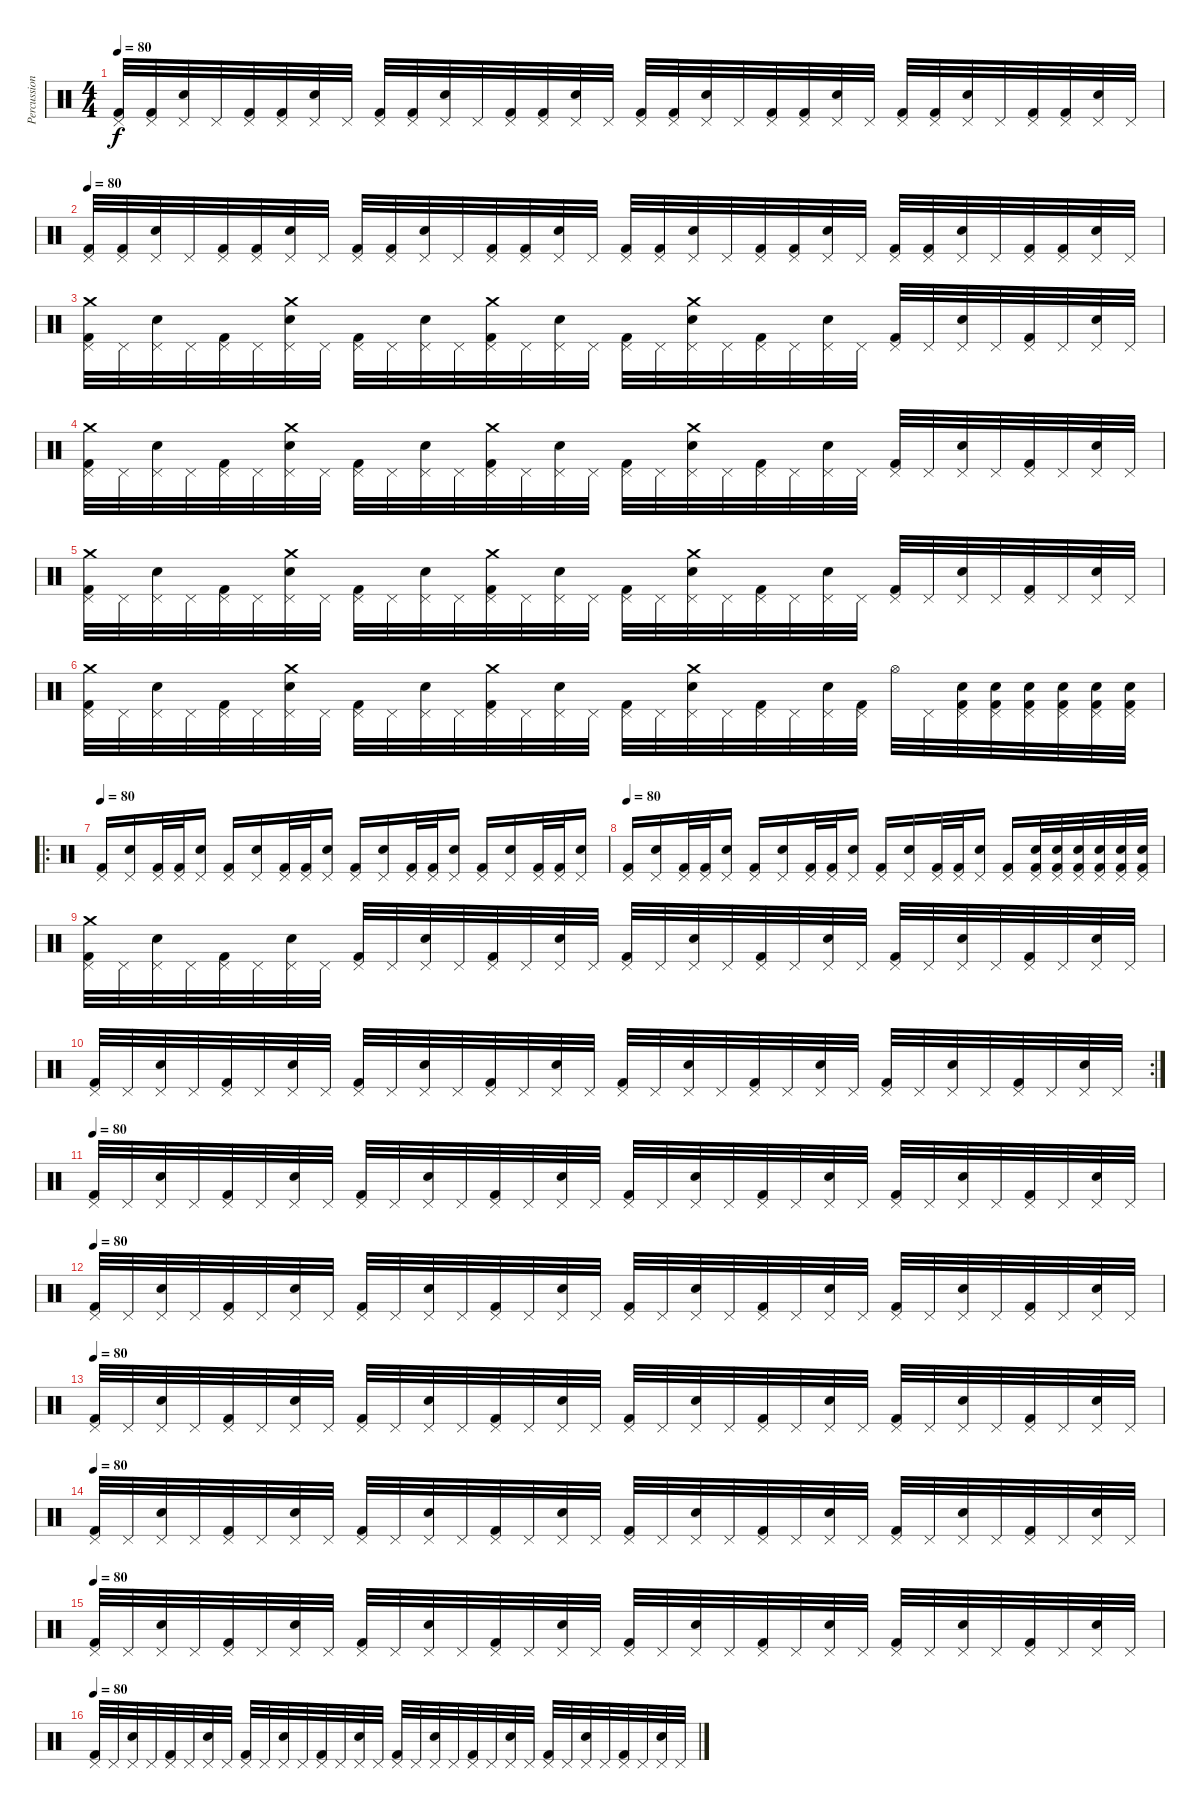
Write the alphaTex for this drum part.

\track ("Percussion" "Percussion") {instrument percussion}
\staff {score}
\articulation defaults
\ts (4 4)
\tempo 80
\clef neutral
\ks c
("Kick (hit) 2" "Pedal Hi-Hat (hit)").32{dy f} ("Kick (hit) 2" "Pedal Hi-Hat (hit)").32 ("Pedal Hi-Hat (hit)" "Electric Snare (hit)").32 "Pedal Hi-Hat (hit)".32 ("Kick (hit) 2" "Pedal Hi-Hat (hit)").32 ("Kick (hit) 2" "Pedal Hi-Hat (hit)").32 ("Pedal Hi-Hat (hit)" "Electric Snare (hit)").32 "Pedal Hi-Hat (hit)".32 ("Kick (hit) 2" "Pedal Hi-Hat (hit)").32 ("Kick (hit) 2" "Pedal Hi-Hat (hit)").32 ("Pedal Hi-Hat (hit)" "Electric Snare (hit)").32 "Pedal Hi-Hat (hit)".32 ("Kick (hit) 2" "Pedal Hi-Hat (hit)").32 ("Kick (hit) 2" "Pedal Hi-Hat (hit)").32 ("Pedal Hi-Hat (hit)" "Electric Snare (hit)").32 "Pedal Hi-Hat (hit)".32 ("Kick (hit) 2" "Pedal Hi-Hat (hit)").32 ("Kick (hit) 2" "Pedal Hi-Hat (hit)").32 ("Pedal Hi-Hat (hit)" "Electric Snare (hit)").32 "Pedal Hi-Hat (hit)".32 ("Kick (hit) 2" "Pedal Hi-Hat (hit)").32 ("Kick (hit) 2" "Pedal Hi-Hat (hit)").32 ("Pedal Hi-Hat (hit)" "Electric Snare (hit)").32 "Pedal Hi-Hat (hit)".32 ("Kick (hit) 2" "Pedal Hi-Hat (hit)").32 ("Kick (hit) 2" "Pedal Hi-Hat (hit)").32 ("Pedal Hi-Hat (hit)" "Electric Snare (hit)").32 "Pedal Hi-Hat (hit)".32 ("Kick (hit) 2" "Pedal Hi-Hat (hit)").32 ("Kick (hit) 2" "Pedal Hi-Hat (hit)").32 ("Pedal Hi-Hat (hit)" "Electric Snare (hit)").32 "Pedal Hi-Hat (hit)".32 |
\tempo 80
("Kick (hit) 2" "Pedal Hi-Hat (hit)").32 ("Kick (hit) 2" "Pedal Hi-Hat (hit)").32 ("Pedal Hi-Hat (hit)" "Electric Snare (hit)").32 "Pedal Hi-Hat (hit)".32 ("Kick (hit) 2" "Pedal Hi-Hat (hit)").32 ("Kick (hit) 2" "Pedal Hi-Hat (hit)").32 ("Pedal Hi-Hat (hit)" "Electric Snare (hit)").32 "Pedal Hi-Hat (hit)".32 ("Kick (hit) 2" "Pedal Hi-Hat (hit)").32 ("Kick (hit) 2" "Pedal Hi-Hat (hit)").32 ("Pedal Hi-Hat (hit)" "Electric Snare (hit)").32 "Pedal Hi-Hat (hit)".32 ("Kick (hit) 2" "Pedal Hi-Hat (hit)").32 ("Kick (hit) 2" "Pedal Hi-Hat (hit)").32 ("Pedal Hi-Hat (hit)" "Electric Snare (hit)").32 "Pedal Hi-Hat (hit)".32 ("Kick (hit) 2" "Pedal Hi-Hat (hit)").32 ("Kick (hit) 2" "Pedal Hi-Hat (hit)").32 ("Pedal Hi-Hat (hit)" "Electric Snare (hit)").32 "Pedal Hi-Hat (hit)".32 ("Kick (hit) 2" "Pedal Hi-Hat (hit)").32 ("Kick (hit) 2" "Pedal Hi-Hat (hit)").32 ("Pedal Hi-Hat (hit)" "Electric Snare (hit)").32 "Pedal Hi-Hat (hit)".32 ("Kick (hit) 2" "Pedal Hi-Hat (hit)").32 ("Kick (hit) 2" "Pedal Hi-Hat (hit)").32 ("Pedal Hi-Hat (hit)" "Electric Snare (hit)").32 "Pedal Hi-Hat (hit)".32 ("Kick (hit) 2" "Pedal Hi-Hat (hit)").32 ("Kick (hit) 2" "Pedal Hi-Hat (hit)").32 ("Pedal Hi-Hat (hit)" "Electric Snare (hit)").32 "Pedal Hi-Hat (hit)".32 |
("Kick (hit) 2" "Pedal Hi-Hat (hit)" "Crash medium (hit)").32 "Pedal Hi-Hat (hit)".32 ("Pedal Hi-Hat (hit)" "Electric Snare (hit)").32 "Pedal Hi-Hat (hit)".32 ("Kick (hit) 2" "Pedal Hi-Hat (hit)").32 "Pedal Hi-Hat (hit)".32 ("Pedal Hi-Hat (hit)" "Electric Snare (hit)" "Crash medium (hit)").32 "Pedal Hi-Hat (hit)".32 ("Kick (hit) 2" "Pedal Hi-Hat (hit)").32 "Pedal Hi-Hat (hit)".32 ("Pedal Hi-Hat (hit)" "Electric Snare (hit)").32 "Pedal Hi-Hat (hit)".32 ("Kick (hit) 2" "Pedal Hi-Hat (hit)" "Crash medium (hit)").32 "Pedal Hi-Hat (hit)".32 ("Pedal Hi-Hat (hit)" "Electric Snare (hit)").32 "Pedal Hi-Hat (hit)".32 ("Kick (hit) 2" "Pedal Hi-Hat (hit)").32 "Pedal Hi-Hat (hit)".32 ("Pedal Hi-Hat (hit)" "Electric Snare (hit)" "Crash medium (hit)").32 "Pedal Hi-Hat (hit)".32 ("Kick (hit) 2" "Pedal Hi-Hat (hit)").32 "Pedal Hi-Hat (hit)".32 ("Pedal Hi-Hat (hit)" "Electric Snare (hit)").32 "Pedal Hi-Hat (hit)".32 ("Kick (hit) 2" "Pedal Hi-Hat (hit)").32 "Pedal Hi-Hat (hit)".32 ("Pedal Hi-Hat (hit)" "Electric Snare (hit)").32 "Pedal Hi-Hat (hit)".32 ("Kick (hit) 2" "Pedal Hi-Hat (hit)").32 "Pedal Hi-Hat (hit)".32 ("Pedal Hi-Hat (hit)" "Electric Snare (hit)").32 "Pedal Hi-Hat (hit)".32 |
("Kick (hit) 2" "Pedal Hi-Hat (hit)" "Crash medium (hit)").32 "Pedal Hi-Hat (hit)".32 ("Pedal Hi-Hat (hit)" "Electric Snare (hit)").32 "Pedal Hi-Hat (hit)".32 ("Kick (hit) 2" "Pedal Hi-Hat (hit)").32 "Pedal Hi-Hat (hit)".32 ("Pedal Hi-Hat (hit)" "Electric Snare (hit)" "Crash medium (hit)").32 "Pedal Hi-Hat (hit)".32 ("Kick (hit) 2" "Pedal Hi-Hat (hit)").32 "Pedal Hi-Hat (hit)".32 ("Pedal Hi-Hat (hit)" "Electric Snare (hit)").32 "Pedal Hi-Hat (hit)".32 ("Kick (hit) 2" "Pedal Hi-Hat (hit)" "Crash medium (hit)").32 "Pedal Hi-Hat (hit)".32 ("Pedal Hi-Hat (hit)" "Electric Snare (hit)").32 "Pedal Hi-Hat (hit)".32 ("Kick (hit) 2" "Pedal Hi-Hat (hit)").32 "Pedal Hi-Hat (hit)".32 ("Pedal Hi-Hat (hit)" "Electric Snare (hit)" "Crash medium (hit)").32 "Pedal Hi-Hat (hit)".32 ("Kick (hit) 2" "Pedal Hi-Hat (hit)").32 "Pedal Hi-Hat (hit)".32 ("Pedal Hi-Hat (hit)" "Electric Snare (hit)").32 "Pedal Hi-Hat (hit)".32 ("Kick (hit) 2" "Pedal Hi-Hat (hit)").32 "Pedal Hi-Hat (hit)".32 ("Pedal Hi-Hat (hit)" "Electric Snare (hit)").32 "Pedal Hi-Hat (hit)".32 ("Kick (hit) 2" "Pedal Hi-Hat (hit)").32 "Pedal Hi-Hat (hit)".32 ("Pedal Hi-Hat (hit)" "Electric Snare (hit)").32 "Pedal Hi-Hat (hit)".32 |
("Kick (hit) 2" "Pedal Hi-Hat (hit)" "Crash medium (hit)").32 "Pedal Hi-Hat (hit)".32 ("Pedal Hi-Hat (hit)" "Electric Snare (hit)").32 "Pedal Hi-Hat (hit)".32 ("Kick (hit) 2" "Pedal Hi-Hat (hit)").32 "Pedal Hi-Hat (hit)".32 ("Pedal Hi-Hat (hit)" "Electric Snare (hit)" "Crash medium (hit)").32 "Pedal Hi-Hat (hit)".32 ("Kick (hit) 2" "Pedal Hi-Hat (hit)").32 "Pedal Hi-Hat (hit)".32 ("Pedal Hi-Hat (hit)" "Electric Snare (hit)").32 "Pedal Hi-Hat (hit)".32 ("Kick (hit) 2" "Pedal Hi-Hat (hit)" "Crash medium (hit)").32 "Pedal Hi-Hat (hit)".32 ("Pedal Hi-Hat (hit)" "Electric Snare (hit)").32 "Pedal Hi-Hat (hit)".32 ("Kick (hit) 2" "Pedal Hi-Hat (hit)").32 "Pedal Hi-Hat (hit)".32 ("Pedal Hi-Hat (hit)" "Electric Snare (hit)" "Crash medium (hit)").32 "Pedal Hi-Hat (hit)".32 ("Kick (hit) 2" "Pedal Hi-Hat (hit)").32 "Pedal Hi-Hat (hit)".32 ("Pedal Hi-Hat (hit)" "Electric Snare (hit)").32 "Pedal Hi-Hat (hit)".32 ("Kick (hit) 2" "Pedal Hi-Hat (hit)").32 "Pedal Hi-Hat (hit)".32 ("Pedal Hi-Hat (hit)" "Electric Snare (hit)").32 "Pedal Hi-Hat (hit)".32 ("Kick (hit) 2" "Pedal Hi-Hat (hit)").32 "Pedal Hi-Hat (hit)".32 ("Pedal Hi-Hat (hit)" "Electric Snare (hit)").32 "Pedal Hi-Hat (hit)".32 |
("Kick (hit) 2" "Pedal Hi-Hat (hit)" "Crash medium (hit)").32 "Pedal Hi-Hat (hit)".32 ("Pedal Hi-Hat (hit)" "Electric Snare (hit)").32 "Pedal Hi-Hat (hit)".32 ("Kick (hit) 2" "Pedal Hi-Hat (hit)").32 "Pedal Hi-Hat (hit)".32 ("Pedal Hi-Hat (hit)" "Electric Snare (hit)" "Crash medium (hit)").32 "Pedal Hi-Hat (hit)".32 ("Kick (hit) 2" "Pedal Hi-Hat (hit)").32 "Pedal Hi-Hat (hit)".32 ("Pedal Hi-Hat (hit)" "Electric Snare (hit)").32 "Pedal Hi-Hat (hit)".32 ("Kick (hit) 2" "Pedal Hi-Hat (hit)" "Crash medium (hit)").32 "Pedal Hi-Hat (hit)".32 ("Pedal Hi-Hat (hit)" "Electric Snare (hit)").32 "Pedal Hi-Hat (hit)".32 ("Kick (hit) 2" "Pedal Hi-Hat (hit)").32 "Pedal Hi-Hat (hit)".32 ("Pedal Hi-Hat (hit)" "Electric Snare (hit)" "Crash medium (hit)").32 "Pedal Hi-Hat (hit)".32 ("Kick (hit) 2" "Pedal Hi-Hat (hit)").32 "Pedal Hi-Hat (hit)".32 ("Pedal Hi-Hat (hit)" "Electric Snare (hit)").32 ("Kick (hit) 2" "Pedal Hi-Hat (hit)").32 "Hi-Hat (open)".32 "Pedal Hi-Hat (hit)".32 ("Kick (hit) 2" "Pedal Hi-Hat (hit)" "Electric Snare (hit)").32 ("Kick (hit) 2" "Pedal Hi-Hat (hit)" "Electric Snare (hit)").32 ("Kick (hit) 2" "Pedal Hi-Hat (hit)" "Electric Snare (hit)").32 ("Kick (hit) 2" "Pedal Hi-Hat (hit)" "Electric Snare (hit)").32 ("Kick (hit) 2" "Pedal Hi-Hat (hit)" "Electric Snare (hit)").32 ("Kick (hit) 2" "Pedal Hi-Hat (hit)" "Electric Snare (hit)").32 |
\ro
\tempo 80
("Kick (hit) 2" "Pedal Hi-Hat (hit)").16 ("Pedal Hi-Hat (hit)" "Electric Snare (hit)").16 ("Kick (hit) 2" "Pedal Hi-Hat (hit)").32 ("Kick (hit) 2" "Pedal Hi-Hat (hit)").32 ("Pedal Hi-Hat (hit)" "Electric Snare (hit)").16 ("Kick (hit) 2" "Pedal Hi-Hat (hit)").16 ("Pedal Hi-Hat (hit)" "Electric Snare (hit)").16 ("Kick (hit) 2" "Pedal Hi-Hat (hit)").32 ("Kick (hit) 2" "Pedal Hi-Hat (hit)").32 ("Pedal Hi-Hat (hit)" "Electric Snare (hit)").16 ("Kick (hit) 2" "Pedal Hi-Hat (hit)").16 ("Pedal Hi-Hat (hit)" "Electric Snare (hit)").16 ("Kick (hit) 2" "Pedal Hi-Hat (hit)").32 ("Kick (hit) 2" "Pedal Hi-Hat (hit)").32 ("Pedal Hi-Hat (hit)" "Electric Snare (hit)").16 ("Kick (hit) 2" "Pedal Hi-Hat (hit)").16 ("Pedal Hi-Hat (hit)" "Electric Snare (hit)").16 ("Kick (hit) 2" "Pedal Hi-Hat (hit)").32 ("Kick (hit) 2" "Pedal Hi-Hat (hit)").32 ("Pedal Hi-Hat (hit)" "Electric Snare (hit)").16 |
\tempo 80
("Kick (hit) 2" "Pedal Hi-Hat (hit)").16 ("Pedal Hi-Hat (hit)" "Electric Snare (hit)").16 ("Kick (hit) 2" "Pedal Hi-Hat (hit)").32 ("Kick (hit) 2" "Pedal Hi-Hat (hit)").32 ("Pedal Hi-Hat (hit)" "Electric Snare (hit)").16 ("Kick (hit) 2" "Pedal Hi-Hat (hit)").16 ("Pedal Hi-Hat (hit)" "Electric Snare (hit)").16 ("Kick (hit) 2" "Pedal Hi-Hat (hit)").32 ("Kick (hit) 2" "Pedal Hi-Hat (hit)").32 ("Pedal Hi-Hat (hit)" "Electric Snare (hit)").16 ("Kick (hit) 2" "Pedal Hi-Hat (hit)").16 ("Pedal Hi-Hat (hit)" "Electric Snare (hit)").16 ("Kick (hit) 2" "Pedal Hi-Hat (hit)").32 ("Kick (hit) 2" "Pedal Hi-Hat (hit)").32 ("Pedal Hi-Hat (hit)" "Electric Snare (hit)").16 ("Kick (hit) 2" "Pedal Hi-Hat (hit)").16 ("Kick (hit) 2" "Pedal Hi-Hat (hit)" "Electric Snare (hit)").32 ("Kick (hit) 2" "Pedal Hi-Hat (hit)" "Electric Snare (hit)").32 ("Kick (hit) 2" "Pedal Hi-Hat (hit)" "Electric Snare (hit)").32 ("Kick (hit) 2" "Pedal Hi-Hat (hit)" "Electric Snare (hit)").32 ("Kick (hit) 2" "Pedal Hi-Hat (hit)" "Electric Snare (hit)").32 ("Kick (hit) 2" "Pedal Hi-Hat (hit)" "Electric Snare (hit)").32 |
("Kick (hit) 2" "Pedal Hi-Hat (hit)" "Crash medium (hit)").32 "Pedal Hi-Hat (hit)".32 ("Pedal Hi-Hat (hit)" "Electric Snare (hit)").32 "Pedal Hi-Hat (hit)".32 ("Kick (hit) 2" "Pedal Hi-Hat (hit)").32 "Pedal Hi-Hat (hit)".32 ("Pedal Hi-Hat (hit)" "Electric Snare (hit)").32 "Pedal Hi-Hat (hit)".32 ("Kick (hit) 2" "Pedal Hi-Hat (hit)").32 "Pedal Hi-Hat (hit)".32 ("Pedal Hi-Hat (hit)" "Electric Snare (hit)").32 "Pedal Hi-Hat (hit)".32 ("Kick (hit) 2" "Pedal Hi-Hat (hit)").32 "Pedal Hi-Hat (hit)".32 ("Pedal Hi-Hat (hit)" "Electric Snare (hit)").32 "Pedal Hi-Hat (hit)".32 ("Kick (hit) 2" "Pedal Hi-Hat (hit)").32 "Pedal Hi-Hat (hit)".32 ("Pedal Hi-Hat (hit)" "Electric Snare (hit)").32 "Pedal Hi-Hat (hit)".32 ("Kick (hit) 2" "Pedal Hi-Hat (hit)").32 "Pedal Hi-Hat (hit)".32 ("Pedal Hi-Hat (hit)" "Electric Snare (hit)").32 "Pedal Hi-Hat (hit)".32 ("Kick (hit) 2" "Pedal Hi-Hat (hit)").32 "Pedal Hi-Hat (hit)".32 ("Pedal Hi-Hat (hit)" "Electric Snare (hit)").32 "Pedal Hi-Hat (hit)".32 ("Kick (hit) 2" "Pedal Hi-Hat (hit)").32 "Pedal Hi-Hat (hit)".32 ("Pedal Hi-Hat (hit)" "Electric Snare (hit)").32 "Pedal Hi-Hat (hit)".32 |
\rc 2
("Kick (hit) 2" "Pedal Hi-Hat (hit)").32 "Pedal Hi-Hat (hit)".32 ("Pedal Hi-Hat (hit)" "Electric Snare (hit)").32 "Pedal Hi-Hat (hit)".32 ("Kick (hit) 2" "Pedal Hi-Hat (hit)").32 "Pedal Hi-Hat (hit)".32 ("Pedal Hi-Hat (hit)" "Electric Snare (hit)").32 "Pedal Hi-Hat (hit)".32 ("Kick (hit) 2" "Pedal Hi-Hat (hit)").32 "Pedal Hi-Hat (hit)".32 ("Pedal Hi-Hat (hit)" "Electric Snare (hit)").32 "Pedal Hi-Hat (hit)".32 ("Kick (hit) 2" "Pedal Hi-Hat (hit)").32 "Pedal Hi-Hat (hit)".32 ("Pedal Hi-Hat (hit)" "Electric Snare (hit)").32 "Pedal Hi-Hat (hit)".32 ("Kick (hit) 2" "Pedal Hi-Hat (hit)").32 "Pedal Hi-Hat (hit)".32 ("Pedal Hi-Hat (hit)" "Electric Snare (hit)").32 "Pedal Hi-Hat (hit)".32 ("Kick (hit) 2" "Pedal Hi-Hat (hit)").32 "Pedal Hi-Hat (hit)".32 ("Pedal Hi-Hat (hit)" "Electric Snare (hit)").32 "Pedal Hi-Hat (hit)".32 ("Kick (hit) 2" "Pedal Hi-Hat (hit)").32 "Pedal Hi-Hat (hit)".32 ("Pedal Hi-Hat (hit)" "Electric Snare (hit)").32 "Pedal Hi-Hat (hit)".32 ("Kick (hit) 2" "Pedal Hi-Hat (hit)").32 "Pedal Hi-Hat (hit)".32 ("Pedal Hi-Hat (hit)" "Electric Snare (hit)").32 "Pedal Hi-Hat (hit)".32 |
\tempo 80
("Kick (hit) 2" "Pedal Hi-Hat (hit)").32 "Pedal Hi-Hat (hit)".32 ("Pedal Hi-Hat (hit)" "Electric Snare (hit)").32 "Pedal Hi-Hat (hit)".32 ("Kick (hit) 2" "Pedal Hi-Hat (hit)").32 "Pedal Hi-Hat (hit)".32 ("Pedal Hi-Hat (hit)" "Electric Snare (hit)").32 "Pedal Hi-Hat (hit)".32 ("Kick (hit) 2" "Pedal Hi-Hat (hit)").32 "Pedal Hi-Hat (hit)".32 ("Pedal Hi-Hat (hit)" "Electric Snare (hit)").32 "Pedal Hi-Hat (hit)".32 ("Kick (hit) 2" "Pedal Hi-Hat (hit)").32 "Pedal Hi-Hat (hit)".32 ("Pedal Hi-Hat (hit)" "Electric Snare (hit)").32 "Pedal Hi-Hat (hit)".32 ("Kick (hit) 2" "Pedal Hi-Hat (hit)").32 "Pedal Hi-Hat (hit)".32 ("Pedal Hi-Hat (hit)" "Electric Snare (hit)").32 "Pedal Hi-Hat (hit)".32 ("Kick (hit) 2" "Pedal Hi-Hat (hit)").32 "Pedal Hi-Hat (hit)".32 ("Pedal Hi-Hat (hit)" "Electric Snare (hit)").32 "Pedal Hi-Hat (hit)".32 ("Kick (hit) 2" "Pedal Hi-Hat (hit)").32 "Pedal Hi-Hat (hit)".32 ("Pedal Hi-Hat (hit)" "Electric Snare (hit)").32 "Pedal Hi-Hat (hit)".32 ("Kick (hit) 2" "Pedal Hi-Hat (hit)").32 "Pedal Hi-Hat (hit)".32 ("Pedal Hi-Hat (hit)" "Electric Snare (hit)").32 "Pedal Hi-Hat (hit)".32 |
\tempo 80
("Kick (hit) 2" "Pedal Hi-Hat (hit)").32 "Pedal Hi-Hat (hit)".32 ("Pedal Hi-Hat (hit)" "Electric Snare (hit)").32 "Pedal Hi-Hat (hit)".32 ("Kick (hit) 2" "Pedal Hi-Hat (hit)").32 "Pedal Hi-Hat (hit)".32 ("Pedal Hi-Hat (hit)" "Electric Snare (hit)").32 "Pedal Hi-Hat (hit)".32 ("Kick (hit) 2" "Pedal Hi-Hat (hit)").32 "Pedal Hi-Hat (hit)".32 ("Pedal Hi-Hat (hit)" "Electric Snare (hit)").32 "Pedal Hi-Hat (hit)".32 ("Kick (hit) 2" "Pedal Hi-Hat (hit)").32 "Pedal Hi-Hat (hit)".32 ("Pedal Hi-Hat (hit)" "Electric Snare (hit)").32 "Pedal Hi-Hat (hit)".32 ("Kick (hit) 2" "Pedal Hi-Hat (hit)").32 "Pedal Hi-Hat (hit)".32 ("Pedal Hi-Hat (hit)" "Electric Snare (hit)").32 "Pedal Hi-Hat (hit)".32 ("Kick (hit) 2" "Pedal Hi-Hat (hit)").32 "Pedal Hi-Hat (hit)".32 ("Pedal Hi-Hat (hit)" "Electric Snare (hit)").32 "Pedal Hi-Hat (hit)".32 ("Kick (hit) 2" "Pedal Hi-Hat (hit)").32 "Pedal Hi-Hat (hit)".32 ("Pedal Hi-Hat (hit)" "Electric Snare (hit)").32 "Pedal Hi-Hat (hit)".32 ("Kick (hit) 2" "Pedal Hi-Hat (hit)").32 "Pedal Hi-Hat (hit)".32 ("Pedal Hi-Hat (hit)" "Electric Snare (hit)").32 "Pedal Hi-Hat (hit)".32 |
\tempo 80
("Kick (hit) 2" "Pedal Hi-Hat (hit)").32 "Pedal Hi-Hat (hit)".32 ("Pedal Hi-Hat (hit)" "Electric Snare (hit)").32 "Pedal Hi-Hat (hit)".32 ("Kick (hit) 2" "Pedal Hi-Hat (hit)").32 "Pedal Hi-Hat (hit)".32 ("Pedal Hi-Hat (hit)" "Electric Snare (hit)").32 "Pedal Hi-Hat (hit)".32 ("Kick (hit) 2" "Pedal Hi-Hat (hit)").32 "Pedal Hi-Hat (hit)".32 ("Pedal Hi-Hat (hit)" "Electric Snare (hit)").32 "Pedal Hi-Hat (hit)".32 ("Kick (hit) 2" "Pedal Hi-Hat (hit)").32 "Pedal Hi-Hat (hit)".32 ("Pedal Hi-Hat (hit)" "Electric Snare (hit)").32 "Pedal Hi-Hat (hit)".32 ("Kick (hit) 2" "Pedal Hi-Hat (hit)").32 "Pedal Hi-Hat (hit)".32 ("Pedal Hi-Hat (hit)" "Electric Snare (hit)").32 "Pedal Hi-Hat (hit)".32 ("Kick (hit) 2" "Pedal Hi-Hat (hit)").32 "Pedal Hi-Hat (hit)".32 ("Pedal Hi-Hat (hit)" "Electric Snare (hit)").32 "Pedal Hi-Hat (hit)".32 ("Kick (hit) 2" "Pedal Hi-Hat (hit)").32 "Pedal Hi-Hat (hit)".32 ("Pedal Hi-Hat (hit)" "Electric Snare (hit)").32 "Pedal Hi-Hat (hit)".32 ("Kick (hit) 2" "Pedal Hi-Hat (hit)").32 "Pedal Hi-Hat (hit)".32 ("Pedal Hi-Hat (hit)" "Electric Snare (hit)").32 "Pedal Hi-Hat (hit)".32 |
\tempo 80
("Kick (hit) 2" "Pedal Hi-Hat (hit)").32 "Pedal Hi-Hat (hit)".32 ("Pedal Hi-Hat (hit)" "Electric Snare (hit)").32 "Pedal Hi-Hat (hit)".32 ("Kick (hit) 2" "Pedal Hi-Hat (hit)").32 "Pedal Hi-Hat (hit)".32 ("Pedal Hi-Hat (hit)" "Electric Snare (hit)").32 "Pedal Hi-Hat (hit)".32 ("Kick (hit) 2" "Pedal Hi-Hat (hit)").32 "Pedal Hi-Hat (hit)".32 ("Pedal Hi-Hat (hit)" "Electric Snare (hit)").32 "Pedal Hi-Hat (hit)".32 ("Kick (hit) 2" "Pedal Hi-Hat (hit)").32 "Pedal Hi-Hat (hit)".32 ("Pedal Hi-Hat (hit)" "Electric Snare (hit)").32 "Pedal Hi-Hat (hit)".32 ("Kick (hit) 2" "Pedal Hi-Hat (hit)").32 "Pedal Hi-Hat (hit)".32 ("Pedal Hi-Hat (hit)" "Electric Snare (hit)").32 "Pedal Hi-Hat (hit)".32 ("Kick (hit) 2" "Pedal Hi-Hat (hit)").32 "Pedal Hi-Hat (hit)".32 ("Pedal Hi-Hat (hit)" "Electric Snare (hit)").32 "Pedal Hi-Hat (hit)".32 ("Kick (hit) 2" "Pedal Hi-Hat (hit)").32 "Pedal Hi-Hat (hit)".32 ("Pedal Hi-Hat (hit)" "Electric Snare (hit)").32 "Pedal Hi-Hat (hit)".32 ("Kick (hit) 2" "Pedal Hi-Hat (hit)").32 "Pedal Hi-Hat (hit)".32 ("Pedal Hi-Hat (hit)" "Electric Snare (hit)").32 "Pedal Hi-Hat (hit)".32 |
\tempo 80
("Kick (hit) 2" "Pedal Hi-Hat (hit)").32 "Pedal Hi-Hat (hit)".32 ("Pedal Hi-Hat (hit)" "Electric Snare (hit)").32 "Pedal Hi-Hat (hit)".32 ("Kick (hit) 2" "Pedal Hi-Hat (hit)").32 "Pedal Hi-Hat (hit)".32 ("Pedal Hi-Hat (hit)" "Electric Snare (hit)").32 "Pedal Hi-Hat (hit)".32 ("Kick (hit) 2" "Pedal Hi-Hat (hit)").32 "Pedal Hi-Hat (hit)".32 ("Pedal Hi-Hat (hit)" "Electric Snare (hit)").32 "Pedal Hi-Hat (hit)".32 ("Kick (hit) 2" "Pedal Hi-Hat (hit)").32 "Pedal Hi-Hat (hit)".32 ("Pedal Hi-Hat (hit)" "Electric Snare (hit)").32 "Pedal Hi-Hat (hit)".32 ("Kick (hit) 2" "Pedal Hi-Hat (hit)").32 "Pedal Hi-Hat (hit)".32 ("Pedal Hi-Hat (hit)" "Electric Snare (hit)").32 "Pedal Hi-Hat (hit)".32 ("Kick (hit) 2" "Pedal Hi-Hat (hit)").32 "Pedal Hi-Hat (hit)".32 ("Pedal Hi-Hat (hit)" "Electric Snare (hit)").32 "Pedal Hi-Hat (hit)".32 ("Kick (hit) 2" "Pedal Hi-Hat (hit)").32 "Pedal Hi-Hat (hit)".32 ("Pedal Hi-Hat (hit)" "Electric Snare (hit)").32 "Pedal Hi-Hat (hit)".32 ("Kick (hit) 2" "Pedal Hi-Hat (hit)").32 "Pedal Hi-Hat (hit)".32 ("Pedal Hi-Hat (hit)" "Electric Snare (hit)").32 "Pedal Hi-Hat (hit)".32 |
\tempo 80
("Kick (hit) 2" "Pedal Hi-Hat (hit)").32 "Pedal Hi-Hat (hit)".32 ("Pedal Hi-Hat (hit)" "Electric Snare (hit)").32 "Pedal Hi-Hat (hit)".32 ("Kick (hit) 2" "Pedal Hi-Hat (hit)").32 "Pedal Hi-Hat (hit)".32 ("Pedal Hi-Hat (hit)" "Electric Snare (hit)").32 "Pedal Hi-Hat (hit)".32 ("Kick (hit) 2" "Pedal Hi-Hat (hit)").32 "Pedal Hi-Hat (hit)".32 ("Pedal Hi-Hat (hit)" "Electric Snare (hit)").32 "Pedal Hi-Hat (hit)".32 ("Kick (hit) 2" "Pedal Hi-Hat (hit)").32 "Pedal Hi-Hat (hit)".32 ("Pedal Hi-Hat (hit)" "Electric Snare (hit)").32 "Pedal Hi-Hat (hit)".32 ("Kick (hit) 2" "Pedal Hi-Hat (hit)").32 "Pedal Hi-Hat (hit)".32 ("Pedal Hi-Hat (hit)" "Electric Snare (hit)").32 "Pedal Hi-Hat (hit)".32 ("Kick (hit) 2" "Pedal Hi-Hat (hit)").32 "Pedal Hi-Hat (hit)".32 ("Pedal Hi-Hat (hit)" "Electric Snare (hit)").32 "Pedal Hi-Hat (hit)".32 ("Kick (hit) 2" "Pedal Hi-Hat (hit)").32 "Pedal Hi-Hat (hit)".32 ("Pedal Hi-Hat (hit)" "Electric Snare (hit)").32 "Pedal Hi-Hat (hit)".32 ("Kick (hit) 2" "Pedal Hi-Hat (hit)").32 "Pedal Hi-Hat (hit)".32 ("Pedal Hi-Hat (hit)" "Electric Snare (hit)").32 "Pedal Hi-Hat (hit)".32
